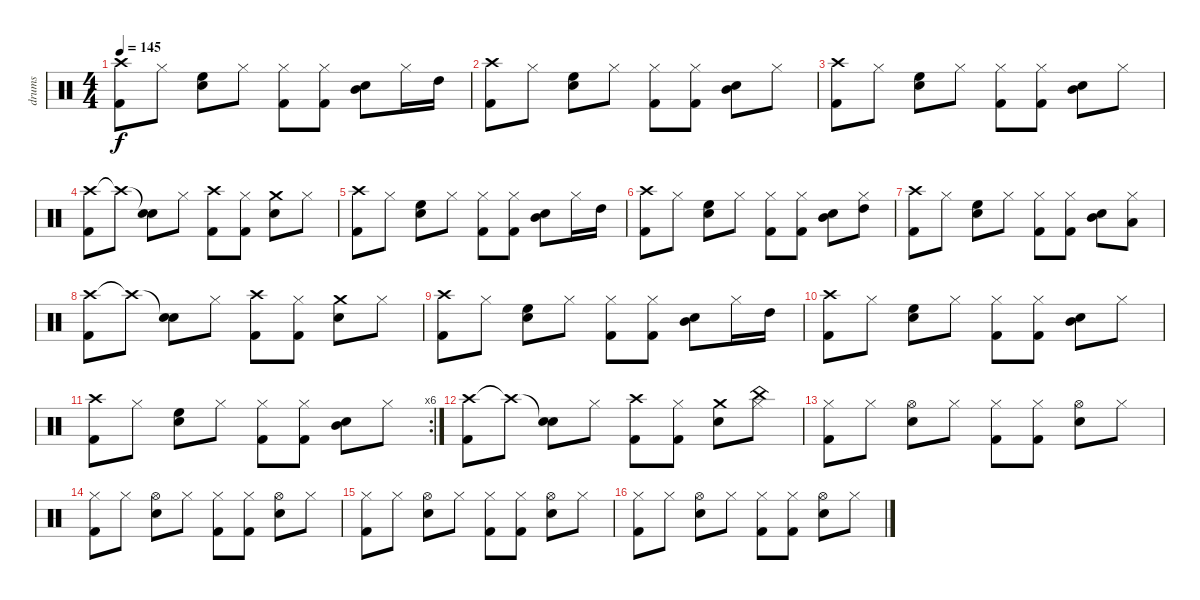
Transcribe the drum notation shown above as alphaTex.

\track ("drums" "drums") {instrument percussion}
\staff {score}
\articulation defaults
\ts (4 4)
\tempo 145
\clef neutral
\ks c
("Crash high (hit)" "Kick (hit) 2").8{dy f} "Hi-Hat (closed)".8 ("High Floor Tom (hit)" "Snare (hit) 2").8 "Hi-Hat (closed)".8 ("Hi-Hat (closed)" "Kick (hit) 2").8 ("Hi-Hat (closed)" "Kick (hit) 2").8 ("Mid Tom (hit)" "Snare (hit) 2").8 "Hi-Hat (closed)".16 "High Tom (hit)".16 |
("Crash high (hit)" "Kick (hit) 2").8 "Hi-Hat (closed)".8 ("High Floor Tom (hit)" "Snare (hit) 2").8 "Hi-Hat (closed)".8 ("Hi-Hat (closed)" "Kick (hit) 2").8 ("Hi-Hat (closed)" "Kick (hit) 2").8 ("Mid Tom (hit)" "Snare (hit) 2").8 "Hi-Hat (closed)".8 |
("Crash high (hit)" "Kick (hit) 2").8 "Hi-Hat (closed)".8 ("High Floor Tom (hit)" "Snare (hit) 2").8 "Hi-Hat (closed)".8 ("Hi-Hat (closed)" "Kick (hit) 2").8 ("Hi-Hat (closed)" "Kick (hit) 2").8 ("Mid Tom (hit)" "Snare (hit) 2").8 "Hi-Hat (closed)".8 |
("Crash high (hit)" "Kick (hit) 2").8 "Crash high (hit)"{t}.8 ("Snare (hit)"{t} "Snare (hit) 2").8 "Hi-Hat (closed)".8 ("Crash high (hit)" "Kick (hit) 2").8 ("Hi-Hat (closed)" "Kick (hit) 2").8 ("Crash medium (hit)" "Snare (hit) 2").8 "Hi-Hat (closed)".8 |
("Crash high (hit)" "Kick (hit) 2").8 "Hi-Hat (closed)".8 ("High Floor Tom (hit)" "Snare (hit) 2").8 "Hi-Hat (closed)".8 ("Hi-Hat (closed)" "Kick (hit) 2").8 ("Hi-Hat (closed)" "Kick (hit) 2").8 ("Mid Tom (hit)" "Snare (hit) 2").8 "Hi-Hat (closed)".16 "High Tom (hit)".16 |
("Crash high (hit)" "Kick (hit) 2").8 "Hi-Hat (closed)".8 ("High Floor Tom (hit)" "Snare (hit) 2").8 "Hi-Hat (closed)".8 ("Hi-Hat (closed)" "Kick (hit) 2").8 ("Hi-Hat (closed)" "Kick (hit) 2").8 ("Mid Tom (hit)" "Snare (hit) 2").8 ("High Tom (hit)" "Hi-Hat (closed)").8 |
("Crash high (hit)" "Kick (hit) 2").8 "Hi-Hat (closed)".8 ("High Floor Tom (hit)" "Snare (hit) 2").8 "Hi-Hat (closed)".8 ("Hi-Hat (closed)" "Kick (hit) 2").8 ("Hi-Hat (closed)" "Kick (hit) 2").8 ("Mid Tom (hit)" "Snare (hit) 2").8 ("Low Tom (hit)" "Hi-Hat (closed)").8 |
("Crash high (hit)" "Kick (hit) 2").8 "Crash high (hit)"{t}.8 ("Snare (hit)"{t} "Snare (hit) 2").8 "Hi-Hat (closed)".8 ("Crash high (hit)" "Kick (hit) 2").8 ("Hi-Hat (closed)" "Kick (hit) 2").8 ("Crash medium (hit)" "Snare (hit) 2").8 "Hi-Hat (closed)".8 |
("Crash high (hit)" "Kick (hit) 2").8 "Hi-Hat (closed)".8 ("High Floor Tom (hit)" "Snare (hit) 2").8 "Hi-Hat (closed)".8 ("Hi-Hat (closed)" "Kick (hit) 2").8 ("Hi-Hat (closed)" "Kick (hit) 2").8 ("Mid Tom (hit)" "Snare (hit) 2").8 "Hi-Hat (closed)".16 "High Tom (hit)".16 |
("Crash high (hit)" "Kick (hit) 2").8 "Hi-Hat (closed)".8 ("High Floor Tom (hit)" "Snare (hit) 2").8 "Hi-Hat (closed)".8 ("Hi-Hat (closed)" "Kick (hit) 2").8 ("Hi-Hat (closed)" "Kick (hit) 2").8 ("Mid Tom (hit)" "Snare (hit) 2").8 "Hi-Hat (closed)".8 |
\rc 6
("Crash high (hit)" "Kick (hit) 2").8 "Hi-Hat (closed)".8 ("High Floor Tom (hit)" "Snare (hit) 2").8 "Hi-Hat (closed)".8 ("Hi-Hat (closed)" "Kick (hit) 2").8 ("Hi-Hat (closed)" "Kick (hit) 2").8 ("Mid Tom (hit)" "Snare (hit) 2").8 "Hi-Hat (closed)".8 |
("Crash high (hit)" "Kick (hit) 2").8 "Crash high (hit)"{t}.8 ("Snare (hit)"{t} "Snare (hit) 2").8 "Hi-Hat (closed)".8 ("Crash high (hit)" "Kick (hit) 2").8 ("Hi-Hat (closed)" "Kick (hit) 2").8 ("Crash medium (hit)" "Snare (hit) 2").8 ("China (hit)" "Hi-Hat (closed)").8 |
("Hi-Hat (closed)" "Kick (hit) 2").8 "Hi-Hat (closed)".8 ("Hi-Hat (open)" "Snare (hit) 2").8 "Hi-Hat (closed)".8 ("Hi-Hat (closed)" "Kick (hit) 2").8 ("Hi-Hat (closed)" "Kick (hit) 2").8 ("Hi-Hat (open)" "Snare (hit) 2").8 "Hi-Hat (closed)".8 |
("Hi-Hat (closed)" "Kick (hit) 2").8 "Hi-Hat (closed)".8 ("Hi-Hat (open)" "Snare (hit) 2").8 "Hi-Hat (closed)".8 ("Hi-Hat (closed)" "Kick (hit) 2").8 ("Hi-Hat (closed)" "Kick (hit) 2").8 ("Hi-Hat (open)" "Snare (hit) 2").8 "Hi-Hat (closed)".8 |
("Hi-Hat (closed)" "Kick (hit) 2").8 "Hi-Hat (closed)".8 ("Hi-Hat (open)" "Snare (hit) 2").8 "Hi-Hat (closed)".8 ("Hi-Hat (closed)" "Kick (hit) 2").8 ("Hi-Hat (closed)" "Kick (hit) 2").8 ("Hi-Hat (open)" "Snare (hit) 2").8 "Hi-Hat (closed)".8 |
("Hi-Hat (closed)" "Kick (hit) 2").8 "Hi-Hat (closed)".8 ("Hi-Hat (open)" "Snare (hit) 2").8 "Hi-Hat (closed)".8 ("Hi-Hat (closed)" "Kick (hit) 2").8 ("Hi-Hat (closed)" "Kick (hit) 2").8 ("Hi-Hat (open)" "Snare (hit) 2").8 "Hi-Hat (closed)".8
